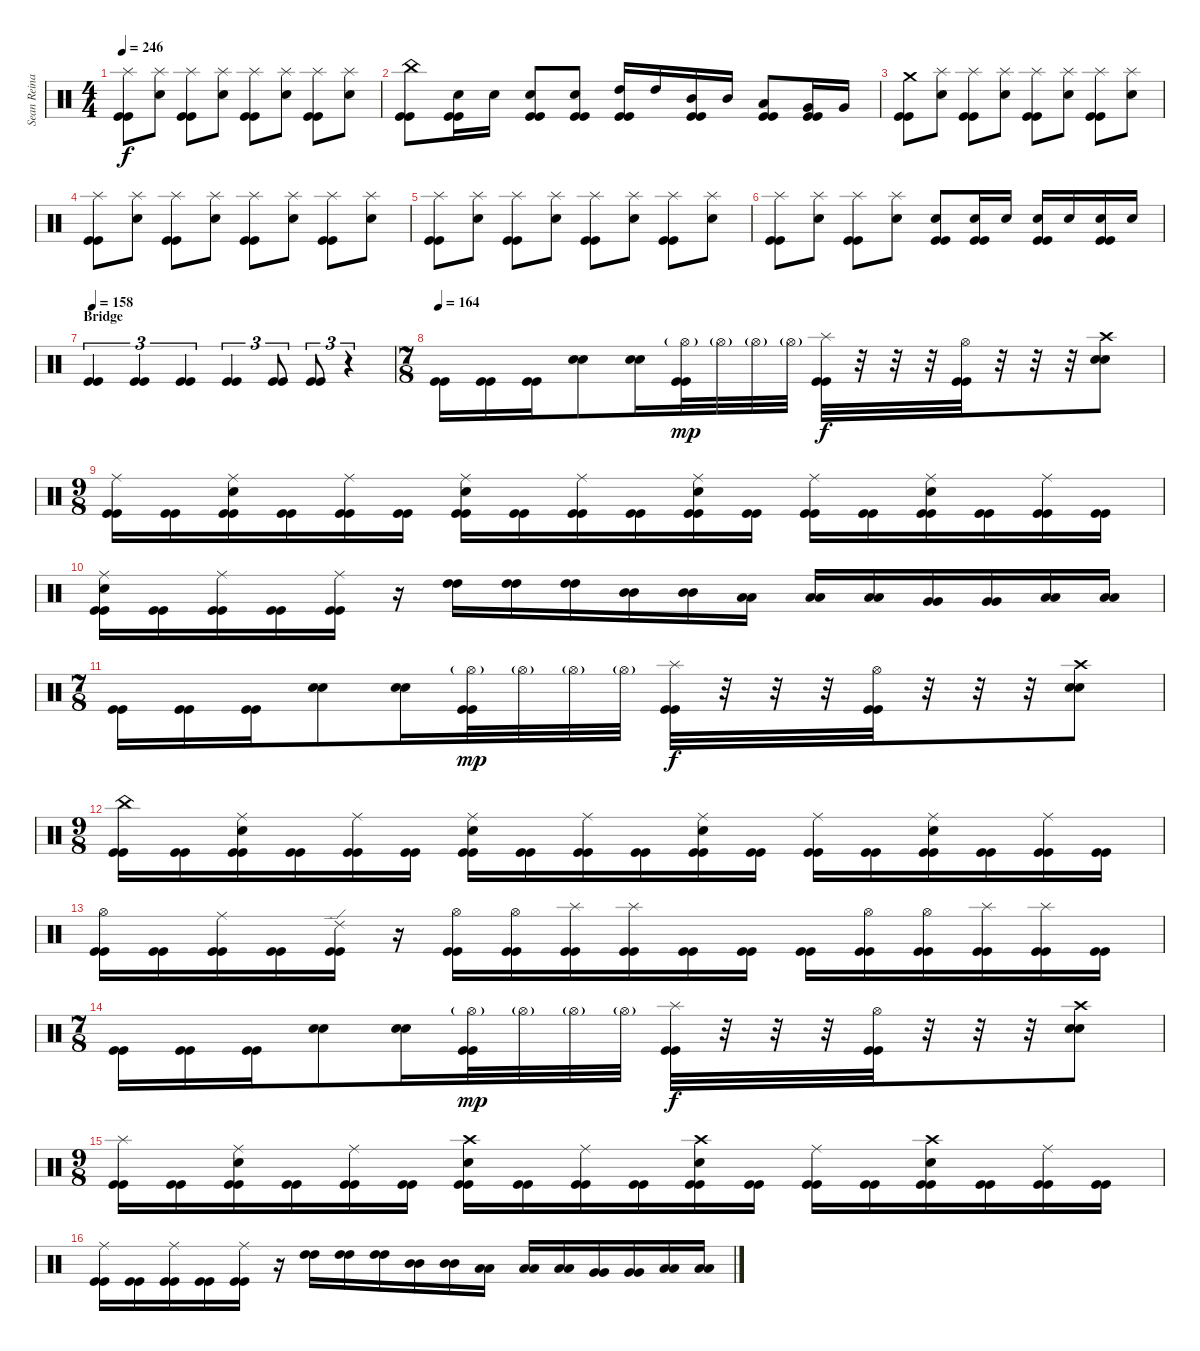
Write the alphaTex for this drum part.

\track ("Sean Reinart" "Sean Reina") {instrument percussion}
\staff {score}
\articulation defaults
\ts (4 4)
\tempo 246
\clef neutral
\ks c
("Splash (hit)" "Kick (hit)" "Kick (hit)").8{dy f} ("Splash (hit)" "Snare (hit) 2").8 ("Splash (hit)" "Kick (hit)" "Kick (hit)").8 ("Splash (hit)" "Snare (hit) 2").8 ("Splash (hit)" "Kick (hit)" "Kick (hit)").8 ("Splash (hit)" "Snare (hit) 2").8 ("Splash (hit)" "Kick (hit)" "Kick (hit)").8 ("Splash (hit)" "Snare (hit) 2").8 |
("China (hit)" "Kick (hit)" "Kick (hit)").8 ("Snare (hit) 2" "Kick (hit)" "Kick (hit)").16 "Snare (hit) 2".16 ("Snare (hit) 2" "Kick (hit)" "Kick (hit)").8 ("Snare (hit) 2" "Kick (hit)" "Kick (hit)").8 ("High Tom (hit)" "Kick (hit)" "Kick (hit)").16 "High Tom (hit)".16 ("Mid Tom (hit)" "Kick (hit)" "Kick (hit)").16 "Mid Tom (hit)".16 ("Low Tom (hit)" "Kick (hit)" "Kick (hit)").8 ("Very Low Tom (hit)" "Kick (hit)" "Kick (hit)").16 "Very Low Tom (hit)".16 |
("Crash medium (hit)" "Kick (hit)" "Kick (hit)").8 ("Splash (hit)" "Snare (hit) 2").8 ("Splash (hit)" "Kick (hit)" "Kick (hit)").8 ("Splash (hit)" "Snare (hit) 2").8 ("Splash (hit)" "Kick (hit)" "Kick (hit)").8 ("Splash (hit)" "Snare (hit) 2").8 ("Splash (hit)" "Kick (hit)" "Kick (hit)").8 ("Splash (hit)" "Snare (hit) 2").8 |
("Splash (hit)" "Kick (hit)" "Kick (hit)").8 ("Splash (hit)" "Snare (hit) 2").8 ("Splash (hit)" "Kick (hit)" "Kick (hit)").8 ("Splash (hit)" "Snare (hit) 2").8 ("Splash (hit)" "Kick (hit)" "Kick (hit)").8 ("Splash (hit)" "Snare (hit) 2").8 ("Splash (hit)" "Kick (hit)" "Kick (hit)").8 ("Splash (hit)" "Snare (hit) 2").8 |
("Splash (hit)" "Kick (hit)" "Kick (hit)").8 ("Splash (hit)" "Snare (hit) 2").8 ("Splash (hit)" "Kick (hit)" "Kick (hit)").8 ("Splash (hit)" "Snare (hit) 2").8 ("Splash (hit)" "Kick (hit)" "Kick (hit)").8 ("Splash (hit)" "Snare (hit) 2").8 ("Splash (hit)" "Kick (hit)" "Kick (hit)").8 ("Splash (hit)" "Snare (hit) 2").8 |
("Splash (hit)" "Kick (hit)" "Kick (hit)").8 ("Splash (hit)" "Snare (hit) 2").8 ("Splash (hit)" "Kick (hit)" "Kick (hit)").8 ("Splash (hit)" "Snare (hit) 2").8 ("Snare (hit) 2" "Kick (hit)" "Kick (hit)").8 ("Snare (hit) 2" "Kick (hit)" "Kick (hit)").16 "Snare (hit) 2".16 ("Snare (hit) 2" "Kick (hit)" "Kick (hit)").16 "Snare (hit) 2".16 ("Snare (hit) 2" "Kick (hit)" "Kick (hit)").16 "Snare (hit) 2".16 |
\section ("" "Bridge")
\tempo 158
("Kick (hit)" "Kick (hit)").4{tu (3 2)} ("Kick (hit)" "Kick (hit)").4{tu (3 2)} ("Kick (hit)" "Kick (hit)").4{tu (3 2)} ("Kick (hit)" "Kick (hit)").4{tu (3 2)} ("Kick (hit)" "Kick (hit)").8{tu (3 2)} ("Kick (hit)" "Kick (hit)").8{tu (3 2)} r.4{tu (3 2)} |
\ts (7 8)
\tempo 164
("Kick (hit)" "Kick (hit)").16 ("Kick (hit)" "Kick (hit)").16 ("Kick (hit)" "Kick (hit)").16 ("Snare (hit) 2" "Electric Snare (hit)").8 ("Snare (hit) 2" "Electric Snare (hit)").16 ("Hi-Hat (open)"{g} "Kick (hit)" "Kick (hit)").32{dy mp} "Hi-Hat (open)"{g}.32 "Hi-Hat (open)"{g}.32 "Hi-Hat (open)"{g}.32 ("Splash (hit)" "Kick (hit)" "Kick (hit)").32{dy f} r.32 r.32 r.32 ("Hi-Hat (open)" "Kick (hit)" "Kick (hit)").32 r.32 r.32 r.32 ("Crash high (hit)" "Snare (hit) 2" "Electric Snare (hit)").8 |
\ts (9 8)
("Ride (middle)" "Kick (hit)" "Kick (hit)").16 ("Kick (hit)" "Kick (hit)").16 ("Ride (middle)" "Snare (hit) 2" "Kick (hit)" "Kick (hit)").16 ("Kick (hit)" "Kick (hit)").16 ("Ride (middle)" "Kick (hit)" "Kick (hit)").16 ("Kick (hit)" "Kick (hit)").16 ("Ride (middle)" "Snare (hit) 2" "Kick (hit)" "Kick (hit)").16 ("Kick (hit)" "Kick (hit)").16 ("Ride (middle)" "Kick (hit)" "Kick (hit)").16 ("Kick (hit)" "Kick (hit)").16 ("Ride (middle)" "Snare (hit) 2" "Kick (hit)" "Kick (hit)").16 ("Kick (hit)" "Kick (hit)").16 ("Ride (middle)" "Kick (hit)" "Kick (hit)").16 ("Kick (hit)" "Kick (hit)").16 ("Ride (middle)" "Snare (hit) 2" "Kick (hit)" "Kick (hit)").16 ("Kick (hit)" "Kick (hit)").16 ("Ride (middle)" "Kick (hit)" "Kick (hit)").16 ("Kick (hit)" "Kick (hit)").16 |
("Ride (middle)" "Snare (hit) 2" "Kick (hit)" "Kick (hit)").16 ("Kick (hit)" "Kick (hit)").16 ("Ride (middle)" "Kick (hit)" "Kick (hit)").16 ("Kick (hit)" "Kick (hit)").16 ("Ride (middle)" "Kick (hit)" "Kick (hit)").16 r.16 ("High Tom (hit)" "High Tom (hit)").16 ("High Tom (hit)" "High Tom (hit)").16 ("High Tom (hit)" "High Tom (hit)").16 ("Mid Tom (hit)" "Mid Tom (hit)").16 ("Mid Tom (hit)" "Mid Tom (hit)").16 ("Low Tom (hit)" "Low Tom (hit)").16 ("Low Tom (hit)" "Low Tom (hit)").16 ("Low Tom (hit)" "Low Tom (hit)").16 ("Very Low Tom (hit)" "Very Low Tom (hit)").16 ("Very Low Tom (hit)" "Very Low Tom (hit)").16 ("Low Floor Tom (hit)" "Low Floor Tom (hit)").16 ("Low Floor Tom (hit)" "Low Floor Tom (hit)").16 |
\ts (7 8)
("Kick (hit)" "Kick (hit)").16 ("Kick (hit)" "Kick (hit)").16 ("Kick (hit)" "Kick (hit)").16 ("Snare (hit) 2" "Electric Snare (hit)").8 ("Snare (hit) 2" "Electric Snare (hit)").16 ("Hi-Hat (open)"{g} "Kick (hit)" "Kick (hit)").32{dy mp} "Hi-Hat (open)"{g}.32 "Hi-Hat (open)"{g}.32 "Hi-Hat (open)"{g}.32 ("Splash (hit)" "Kick (hit)" "Kick (hit)").32{dy f} r.32 r.32 r.32 ("Hi-Hat (open)" "Kick (hit)" "Kick (hit)").32 r.32 r.32 r.32 ("Crash high (hit)" "Snare (hit) 2" "Electric Snare (hit)").8 |
\ts (9 8)
("China (hit)" "Kick (hit)" "Kick (hit)").16 ("Kick (hit)" "Kick (hit)").16 ("Ride (middle)" "Snare (hit) 2" "Kick (hit)" "Kick (hit)").16 ("Kick (hit)" "Kick (hit)").16 ("Ride (middle)" "Kick (hit)" "Kick (hit)").16 ("Kick (hit)" "Kick (hit)").16 ("Ride (middle)" "Snare (hit) 2" "Kick (hit)" "Kick (hit)").16 ("Kick (hit)" "Kick (hit)").16 ("Ride (middle)" "Kick (hit)" "Kick (hit)").16 ("Kick (hit)" "Kick (hit)").16 ("Ride (middle)" "Snare (hit) 2" "Kick (hit)" "Kick (hit)").16 ("Kick (hit)" "Kick (hit)").16 ("Ride (middle)" "Kick (hit)" "Kick (hit)").16 ("Kick (hit)" "Kick (hit)").16 ("Ride (middle)" "Snare (hit) 2" "Kick (hit)" "Kick (hit)").16 ("Kick (hit)" "Kick (hit)").16 ("Ride (middle)" "Kick (hit)" "Kick (hit)").16 ("Kick (hit)" "Kick (hit)").16 |
("Hi-Hat (open)" "Kick (hit)" "Kick (hit)").16 ("Kick (hit)" "Kick (hit)").16 ("Ride (middle)" "Kick (hit)" "Kick (hit)").16 ("Kick (hit)" "Kick (hit)").16 ("Ride (edge) 2" "Kick (hit)" "Kick (hit)").16 r.16 ("Hi-Hat (open)" "Kick (hit)" "Kick (hit)").16 ("Hi-Hat (open)" "Kick (hit)" "Kick (hit)").16 ("Splash (hit)" "Kick (hit)" "Kick (hit)").16 ("Splash (hit)" "Kick (hit)" "Kick (hit)").16 ("Kick (hit)" "Kick (hit)").16 ("Kick (hit)" "Kick (hit)").16 ("Kick (hit)" "Kick (hit)").16 ("Hi-Hat (open)" "Kick (hit)" "Kick (hit)").16 ("Hi-Hat (open)" "Kick (hit)" "Kick (hit)").16 ("Splash (hit)" "Kick (hit)" "Kick (hit)").16 ("Splash (hit)" "Kick (hit)" "Kick (hit)").16 ("Kick (hit)" "Kick (hit)").16 |
\ts (7 8)
("Kick (hit)" "Kick (hit)").16 ("Kick (hit)" "Kick (hit)").16 ("Kick (hit)" "Kick (hit)").16 ("Snare (hit) 2" "Electric Snare (hit)").8 ("Snare (hit) 2" "Electric Snare (hit)").16 ("Hi-Hat (open)"{g} "Kick (hit)" "Kick (hit)").32{dy mp} "Hi-Hat (open)"{g}.32 "Hi-Hat (open)"{g}.32 "Hi-Hat (open)"{g}.32 ("Splash (hit)" "Kick (hit)" "Kick (hit)").32{dy f} r.32 r.32 r.32 ("Hi-Hat (open)" "Kick (hit)" "Kick (hit)").32 r.32 r.32 r.32 ("Crash high (hit)" "Snare (hit) 2" "Electric Snare (hit)").8 |
\ts (9 8)
("Splash (hit)" "Kick (hit)" "Kick (hit)").16 ("Kick (hit)" "Kick (hit)").16 ("Ride (middle)" "Snare (hit) 2" "Kick (hit)" "Kick (hit)").16 ("Kick (hit)" "Kick (hit)").16 ("Ride (middle)" "Kick (hit)" "Kick (hit)").16 ("Kick (hit)" "Kick (hit)").16 ("Crash high (hit)" "Snare (hit) 2" "Kick (hit)" "Kick (hit)").16 ("Kick (hit)" "Kick (hit)").16 ("Ride (middle)" "Kick (hit)" "Kick (hit)").16 ("Kick (hit)" "Kick (hit)").16 ("Crash high (hit)" "Snare (hit) 2" "Kick (hit)" "Kick (hit)").16 ("Kick (hit)" "Kick (hit)").16 ("Ride (middle)" "Kick (hit)" "Kick (hit)").16 ("Kick (hit)" "Kick (hit)").16 ("Crash high (hit)" "Snare (hit) 2" "Kick (hit)" "Kick (hit)").16 ("Kick (hit)" "Kick (hit)").16 ("Ride (middle)" "Kick (hit)" "Kick (hit)").16 ("Kick (hit)" "Kick (hit)").16 |
("Ride (middle)" "Kick (hit)" "Kick (hit)").16 ("Kick (hit)" "Kick (hit)").16 ("Ride (middle)" "Kick (hit)" "Kick (hit)").16 ("Kick (hit)" "Kick (hit)").16 ("Ride (middle)" "Kick (hit)" "Kick (hit)").16 r.16 ("High Tom (hit)" "High Tom (hit)").16 ("High Tom (hit)" "High Tom (hit)").16 ("High Tom (hit)" "High Tom (hit)").16 ("Mid Tom (hit)" "Mid Tom (hit)").16 ("Mid Tom (hit)" "Mid Tom (hit)").16 ("Low Tom (hit)" "Low Tom (hit)").16 ("Low Tom (hit)" "Low Tom (hit)").16 ("Low Tom (hit)" "Low Tom (hit)").16 ("Very Low Tom (hit)" "Very Low Tom (hit)").16 ("Very Low Tom (hit)" "Very Low Tom (hit)").16 ("Low Floor Tom (hit)" "Low Floor Tom (hit)").16 ("Low Floor Tom (hit)" "Low Floor Tom (hit)").16
